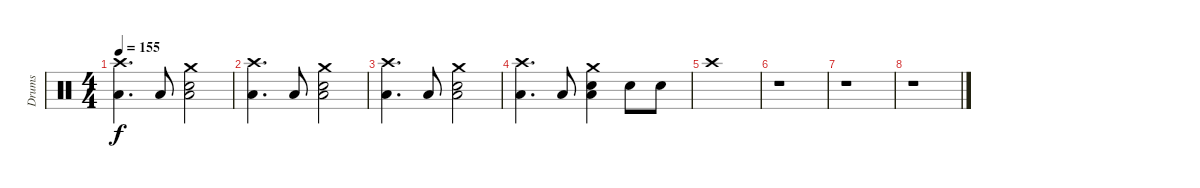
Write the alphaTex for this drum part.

\track ("Drums" "Drums") {instrument percussion}
\staff {score}
\articulation defaults
\ts (4 4)
\tempo 155
\clef neutral
\ks c
("Crash high (hit)" "Low Floor Tom (hit)").4{d dy f} "Low Floor Tom (hit)".8 ("Crash medium (hit)" "Electric Snare (hit)" "Low Floor Tom (hit)").2 |
("Crash high (hit)" "Low Floor Tom (hit)").4{d} "Low Floor Tom (hit)".8 ("Crash medium (hit)" "Electric Snare (hit)" "Low Floor Tom (hit)").2 |
("Crash high (hit)" "Low Floor Tom (hit)").4{d} "Low Floor Tom (hit)".8 ("Crash medium (hit)" "Electric Snare (hit)" "Low Floor Tom (hit)").2 |
("Crash high (hit)" "Low Floor Tom (hit)").4{d} "Low Floor Tom (hit)".8 ("Crash medium (hit)" "Electric Snare (hit)" "Low Floor Tom (hit)").4 "Electric Snare (hit)".8 "Electric Snare (hit)".8 |
"Crash high (hit)".1 |
r.1 |
r.1 |
r.1
